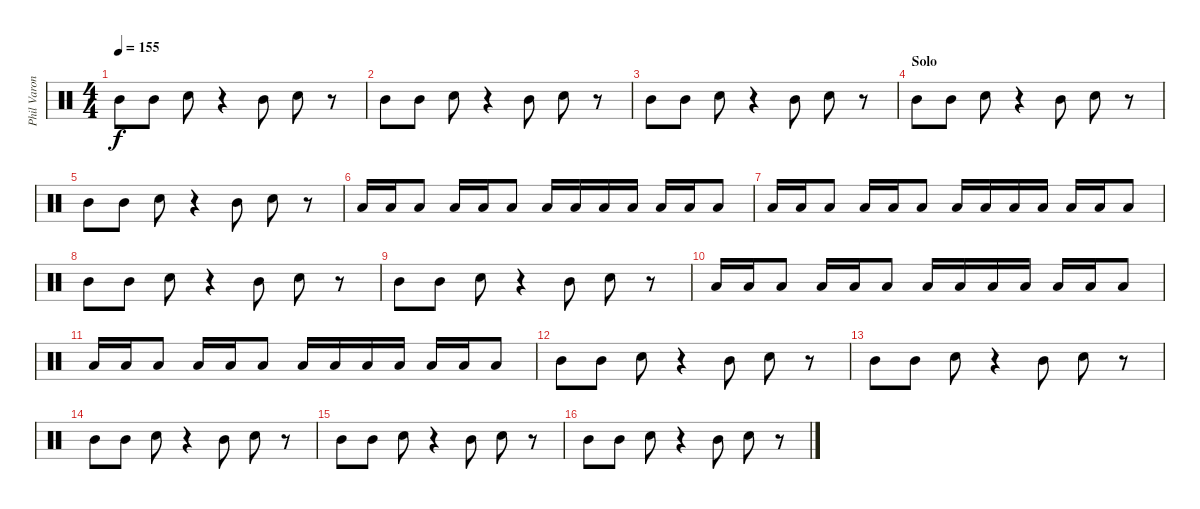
\track ("Phil Varone" "Phil Varon") {instrument percussion}
\staff {score}
\articulation defaults
\ts (4 4)
\tempo 155
\clef neutral
\ks c "Mid Tom (hit)".8{dy f} "Mid Tom (hit)".8 "Snare (hit) 2".8
r.4 "Mid Tom (hit)".8 "Snare (hit) 2".8 r.8 |
"Mid Tom (hit)".8 "Mid Tom (hit)".8 "Snare (hit) 2".8 r.4 "Mid Tom (hit)".8 "Snare (hit) 2".8 r.8 |
"Mid Tom (hit)".8 "Mid Tom (hit)".8 "Snare (hit) 2".8 r.4 "Mid Tom (hit)".8 "Snare (hit) 2".8 r.8 |
\section ("" "Solo")
"Mid Tom (hit)".8 "Mid Tom (hit)".8 "Snare (hit) 2".8 r.4 "Mid Tom (hit)".8 "Snare (hit) 2".8 r.8 |
"Mid Tom (hit)".8 "Mid Tom (hit)".8 "Snare (hit) 2".8 r.4 "Mid Tom (hit)".8 "Snare (hit) 2".8 r.8 |
"Low Tom (hit)".16 "Low Tom (hit)".16 "Low Tom (hit)".8 "Low Tom (hit)".16 "Low Tom (hit)".16 "Low Tom (hit)".8 "Low Tom (hit)".16 "Low Tom (hit)".16 "Low Tom (hit)".16 "Low Tom (hit)".16 "Low Tom (hit)".16 "Low Tom (hit)".16 "Low Tom (hit)".8 |
"Low Tom (hit)".16 "Low Tom (hit)".16 "Low Tom (hit)".8 "Low Tom (hit)".16 "Low Tom (hit)".16 "Low Tom (hit)".8 "Low Tom (hit)".16 "Low Tom (hit)".16 "Low Tom (hit)".16 "Low Tom (hit)".16 "Low Tom (hit)".16 "Low Tom (hit)".16 "Low Tom (hit)".8 |
"Mid Tom (hit)".8 "Mid Tom (hit)".8 "Snare (hit) 2".8 r.4 "Mid Tom (hit)".8 "Snare (hit) 2".8 r.8 |
"Mid Tom (hit)".8 "Mid Tom (hit)".8 "Snare (hit) 2".8 r.4 "Mid Tom (hit)".8 "Snare (hit) 2".8 r.8 |
"Low Tom (hit)".16 "Low Tom (hit)".16 "Low Tom (hit)".8 "Low Tom (hit)".16 "Low Tom (hit)".16 "Low Tom (hit)".8 "Low Tom (hit)".16 "Low Tom (hit)".16 "Low Tom (hit)".16 "Low Tom (hit)".16 "Low Tom (hit)".16 "Low Tom (hit)".16 "Low Tom (hit)".8 |
"Low Tom (hit)".16 "Low Tom (hit)".16 "Low Tom (hit)".8 "Low Tom (hit)".16 "Low Tom (hit)".16 "Low Tom (hit)".8 "Low Tom (hit)".16 "Low Tom (hit)".16 "Low Tom (hit)".16 "Low Tom (hit)".16 "Low Tom (hit)".16 "Low Tom (hit)".16 "Low Tom (hit)".8 |
"Mid Tom (hit)".8 "Mid Tom (hit)".8 "Snare (hit) 2".8 r.4 "Mid Tom (hit)".8 "Snare (hit) 2".8 r.8 |
"Mid Tom (hit)".8 "Mid Tom (hit)".8 "Snare (hit) 2".8 r.4 "Mid Tom (hit)".8 "Snare (hit) 2".8 r.8 |
"Mid Tom (hit)".8 "Mid Tom (hit)".8 "Snare (hit) 2".8 r.4 "Mid Tom (hit)".8 "Snare (hit) 2".8 r.8 |
"Mid Tom (hit)".8 "Mid Tom (hit)".8 "Snare (hit) 2".8 r.4 "Mid Tom (hit)".8 "Snare (hit) 2".8 r.8 |
"Mid Tom (hit)".8 "Mid Tom (hit)".8 "Snare (hit) 2".8 r.4 "Mid Tom (hit)".8 "Snare (hit) 2".8 r.8
